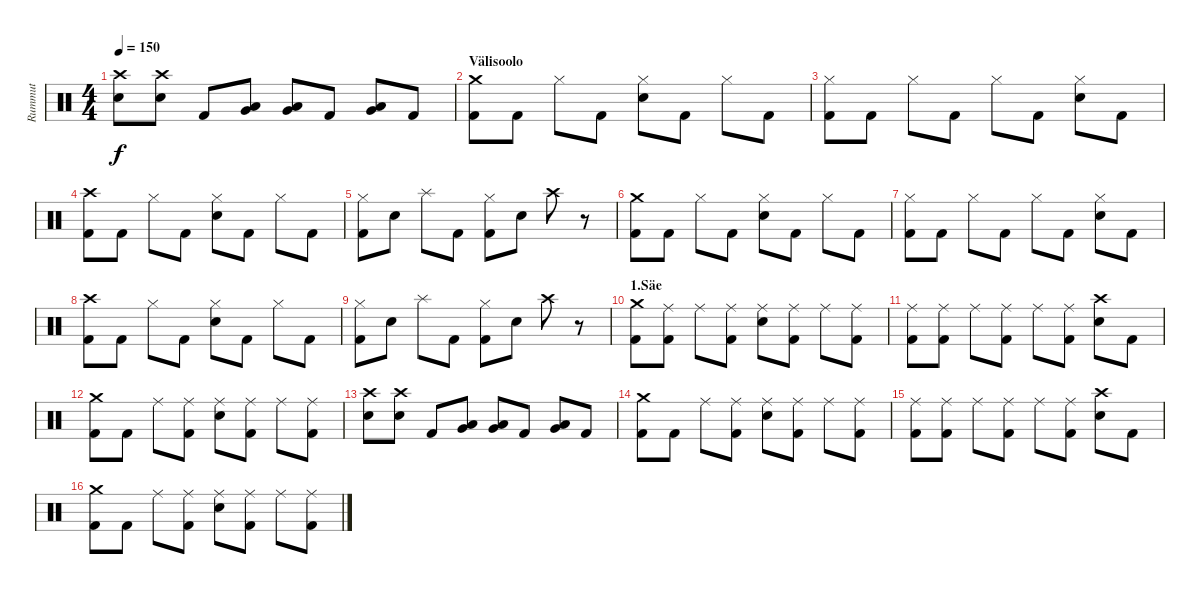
\track ("Rummut" "Rummut") {instrument percussion}
\staff {score}
\articulation defaults
\ts (4 4)
\tempo 150
\clef neutral
\ks c
("Crash high (hit)" "Snare (hit) 2").8{dy f} ("Crash high (hit)" "Snare (hit) 2").8 "Kick (hit) 2".8 ("Low Tom (hit)" "Very Low Tom (hit)").8 ("Low Tom (hit)" "Very Low Tom (hit)").8 "Kick (hit) 2".8 ("Very Low Tom (hit)" "Low Floor Tom (hit)").8 "Kick (hit) 2".8 |
\section ("" "Välisoolo")
("Crash medium (hit)" "Kick (hit) 2").8 "Kick (hit) 2".8 "Hi-Hat (closed)".8 "Kick (hit) 2".8 ("Hi-Hat (closed)" "Snare (hit) 2").8 "Kick (hit) 2".8 "Hi-Hat (closed)".8 "Kick (hit) 2".8 |
("Hi-Hat (closed)" "Kick (hit) 2").8 "Kick (hit) 2".8 "Hi-Hat (closed)".8 "Kick (hit) 2".8 "Hi-Hat (closed)".8 "Kick (hit) 2".8 ("Hi-Hat (closed)" "Snare (hit) 2").8 "Kick (hit) 2".8 |
("Crash high (hit)" "Kick (hit) 2").8 "Kick (hit) 2".8 "Hi-Hat (closed)".8 "Kick (hit) 2".8 ("Hi-Hat (closed)" "Snare (hit) 2").8 "Kick (hit) 2".8 "Hi-Hat (closed)".8 "Kick (hit) 2".8 |
("Hi-Hat (closed)" "Kick (hit) 2").8 "Snare (hit) 2".8 "Splash (hit)".8 "Kick (hit) 2".8 ("Hi-Hat (closed)" "Kick (hit) 2").8 "Snare (hit) 2".8 "Crash high (hit)".8 r.8 |
("Crash medium (hit)" "Kick (hit) 2").8 "Kick (hit) 2".8 "Hi-Hat (closed)".8 "Kick (hit) 2".8 ("Hi-Hat (closed)" "Snare (hit) 2").8 "Kick (hit) 2".8 "Hi-Hat (closed)".8 "Kick (hit) 2".8 |
("Hi-Hat (closed)" "Kick (hit) 2").8 "Kick (hit) 2".8 "Hi-Hat (closed)".8 "Kick (hit) 2".8 "Hi-Hat (closed)".8 "Kick (hit) 2".8 ("Hi-Hat (closed)" "Snare (hit) 2").8 "Kick (hit) 2".8 |
("Crash high (hit)" "Kick (hit) 2").8 "Kick (hit) 2".8 "Hi-Hat (closed)".8 "Kick (hit) 2".8 ("Hi-Hat (closed)" "Snare (hit) 2").8 "Kick (hit) 2".8 "Hi-Hat (closed)".8 "Kick (hit) 2".8 |
("Hi-Hat (closed)" "Kick (hit) 2").8 "Snare (hit) 2".8 "Splash (hit)".8 "Kick (hit) 2".8 ("Hi-Hat (closed)" "Kick (hit) 2").8 "Snare (hit) 2".8 "Crash high (hit)".8 r.8 |
\section ("" "1.Säe")
("Crash medium (hit)" "Kick (hit) 2").8 ("Ride (middle)" "Kick (hit) 2").8 "Ride (middle)".8 ("Ride (middle)" "Kick (hit) 2").8 ("Ride (middle)" "Snare (hit) 2").8 ("Ride (middle)" "Kick (hit) 2").8 "Ride (middle)".8 ("Ride (middle)" "Kick (hit) 2").8 |
("Ride (middle)" "Kick (hit) 2").8 ("Ride (middle)" "Kick (hit) 2").8 "Ride (middle)".8 ("Ride (middle)" "Kick (hit) 2").8 "Ride (middle)".8 ("Ride (middle)" "Kick (hit) 2").8 ("Crash high (hit)" "Snare (hit) 2").8 "Kick (hit) 2".8 |
("Crash medium (hit)" "Kick (hit) 2").8 "Kick (hit) 2".8 "Ride (middle)".8 ("Ride (middle)" "Kick (hit) 2").8 ("Ride (middle)" "Snare (hit) 2").8 ("Ride (middle)" "Kick (hit) 2").8 "Ride (middle)".8 ("Ride (middle)" "Kick (hit) 2").8 |
("Crash high (hit)" "Snare (hit) 2").8 ("Crash high (hit)" "Snare (hit) 2").8 "Kick (hit) 2".8 ("Low Tom (hit)" "Very Low Tom (hit)").8 ("Low Tom (hit)" "Very Low Tom (hit)").8 "Kick (hit) 2".8 ("Very Low Tom (hit)" "Low Floor Tom (hit)").8 "Kick (hit) 2".8 |
("Crash medium (hit)" "Kick (hit) 2").8 "Kick (hit) 2".8 "Ride (middle)".8 ("Ride (middle)" "Kick (hit) 2").8 ("Ride (middle)" "Snare (hit) 2").8 ("Ride (middle)" "Kick (hit) 2").8 "Ride (middle)".8 ("Ride (middle)" "Kick (hit) 2").8 |
("Ride (middle)" "Kick (hit) 2").8 ("Ride (middle)" "Kick (hit) 2").8 "Ride (middle)".8 ("Ride (middle)" "Kick (hit) 2").8 "Ride (middle)".8 ("Ride (middle)" "Kick (hit) 2").8 ("Crash high (hit)" "Snare (hit) 2").8 "Kick (hit) 2".8 |
("Crash medium (hit)" "Kick (hit) 2").8 "Kick (hit) 2".8 "Ride (middle)".8 ("Ride (middle)" "Kick (hit) 2").8 ("Ride (middle)" "Snare (hit) 2").8 ("Ride (middle)" "Kick (hit) 2").8 "Ride (middle)".8 ("Ride (middle)" "Kick (hit) 2").8
